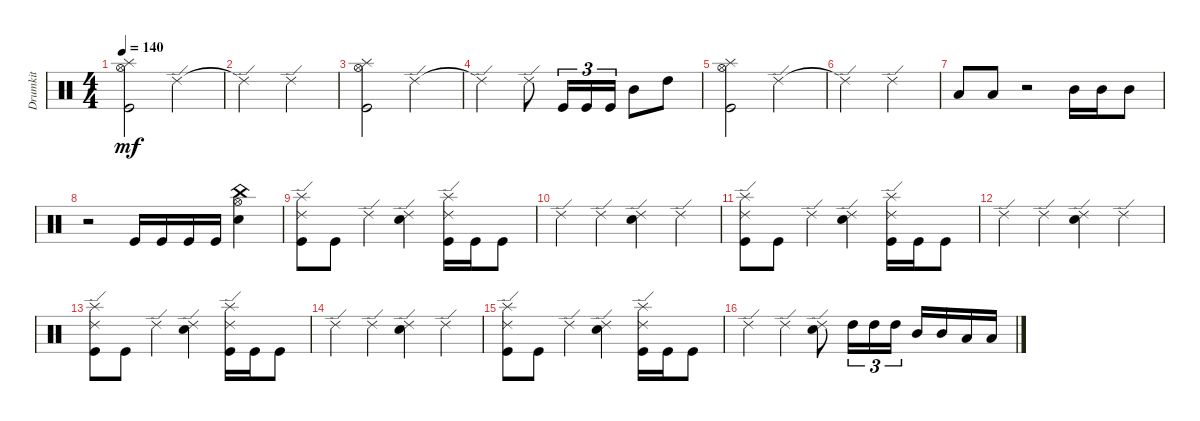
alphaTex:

\track ("Drumkit" "Drumkit") {instrument percussion}
\staff {score}
\articulation defaults
\ts (4 4)
\tempo 140
\clef neutral
\ks c
("Splash (hit)" "Kick (hit)" "Hi-Hat (open)").2{dy mf} "Ride (edge) 2".2 |
"Ride (edge) 2"{t}.2 "Ride (edge) 2".2 |
("Splash (hit)" "Kick (hit)" "Hi-Hat (open)").2 "Ride (edge) 2".2 |
"Ride (edge) 2"{t}.2 "Ride (edge) 2".8 "Kick (hit)".16{tu (3 2)} "Kick (hit)".16{tu (3 2)} "Kick (hit)".16{tu (3 2)} "Mid Tom (hit)".8 "High Tom (hit)".8 |
("Splash (hit)" "Kick (hit)" "Hi-Hat (open)").2 "Ride (edge) 2".2 |
"Ride (edge) 2"{t}.2 "Ride (edge) 2".2 |
"Low Tom (hit)".8 "Low Tom (hit)".8 r.2 "Mid Tom (hit)".16 "Mid Tom (hit)".16 "Mid Tom (hit)".8 |
r.2 "Kick (hit)".16 "Kick (hit)".16 "Kick (hit)".16 "Kick (hit)".16 ("Snare (hit) 2" "China (hit)" "Hi-Hat (open)").4 |
("Ride (edge) 2" "Splash (hit)" "Kick (hit)").8 "Kick (hit)".8 "Ride (edge) 2".4 ("Ride (edge) 2" "Snare (hit) 2").4 ("Ride (edge) 2" "Kick (hit)" "Splash (hit)").16 "Kick (hit)".16 "Kick (hit)".8 |
"Ride (edge) 2".4 "Ride (edge) 2".4 ("Ride (edge) 2" "Snare (hit) 2").4 "Ride (edge) 2".4 |
("Ride (edge) 2" "Splash (hit)" "Kick (hit)").8 "Kick (hit)".8 "Ride (edge) 2".4 ("Ride (edge) 2" "Snare (hit) 2").4 ("Ride (edge) 2" "Kick (hit)" "Splash (hit)").16 "Kick (hit)".16 "Kick (hit)".8 |
"Ride (edge) 2".4 "Ride (edge) 2".4 ("Ride (edge) 2" "Snare (hit) 2").4 "Ride (edge) 2".4 |
("Ride (edge) 2" "Splash (hit)" "Kick (hit)").8 "Kick (hit)".8 "Ride (edge) 2".4 ("Ride (edge) 2" "Snare (hit) 2").4 ("Ride (edge) 2" "Kick (hit)" "Splash (hit)").16 "Kick (hit)".16 "Kick (hit)".8 |
"Ride (edge) 2".4 "Ride (edge) 2".4 ("Ride (edge) 2" "Snare (hit) 2").4 "Ride (edge) 2".4 |
("Ride (edge) 2" "Splash (hit)" "Kick (hit)").8 "Kick (hit)".8 "Ride (edge) 2".4 ("Ride (edge) 2" "Snare (hit) 2").4 ("Ride (edge) 2" "Kick (hit)" "Splash (hit)").16 "Kick (hit)".16 "Kick (hit)".8 |
"Ride (edge) 2".4 "Ride (edge) 2".4 ("Ride (edge) 2" "Snare (hit) 2").8 "High Tom (hit)".16{tu (3 2)} "High Tom (hit)".16{tu (3 2)} "High Tom (hit)".16{tu (3 2)} "Mid Tom (hit)".16 "Mid Tom (hit)".16 "Low Tom (hit)".16 "Low Tom (hit)".16
